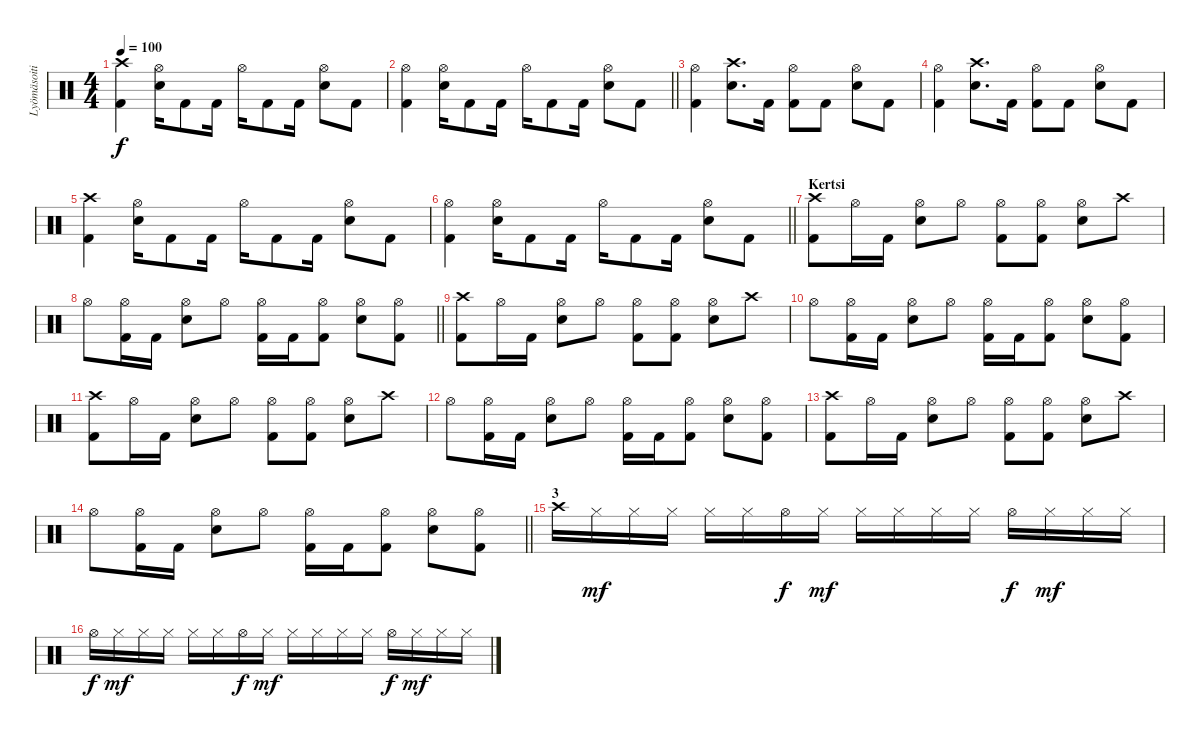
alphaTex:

\track ("Lyömäsoitin" "Lyömäsoiti") {instrument percussion}
\staff {score}
\articulation defaults
\ts (4 4)
\tempo 100
\clef neutral
\ks c
("Crash high (hit)" "Kick (hit) 2").4{dy f} ("Hi-Hat (open)" "Snare (hit) 2").16 "Kick (hit) 2".8 "Kick (hit) 2".16 "Hi-Hat (open)".16 "Kick (hit) 2".8 "Kick (hit) 2".16 ("Hi-Hat (open)" "Snare (hit) 2").8 "Kick (hit) 2".8 |
\barLineRight lightlight
("Hi-Hat (open)" "Kick (hit) 2").4 ("Hi-Hat (open)" "Snare (hit) 2").16 "Kick (hit) 2".8 "Kick (hit) 2".16 "Hi-Hat (open)".16 "Kick (hit) 2".8 "Kick (hit) 2".16 ("Hi-Hat (open)" "Snare (hit) 2").8 "Kick (hit) 2".8 |
("Hi-Hat (open)" "Kick (hit) 2").4 ("Crash high (hit)" "Snare (hit) 2").8{d} "Kick (hit) 2".16 ("Hi-Hat (open)" "Kick (hit) 2").8 "Kick (hit) 2".8 ("Hi-Hat (open)" "Snare (hit) 2").8 "Kick (hit) 2".8 |
("Hi-Hat (open)" "Kick (hit) 2").4 ("Crash high (hit)" "Snare (hit) 2").8{d} "Kick (hit) 2".16 ("Hi-Hat (open)" "Kick (hit) 2").8 "Kick (hit) 2".8 ("Hi-Hat (open)" "Snare (hit) 2").8 "Kick (hit) 2".8 |
("Crash high (hit)" "Kick (hit) 2").4 ("Hi-Hat (open)" "Snare (hit) 2").16 "Kick (hit) 2".8 "Kick (hit) 2".16 "Hi-Hat (open)".16 "Kick (hit) 2".8 "Kick (hit) 2".16 ("Hi-Hat (open)" "Snare (hit) 2").8 "Kick (hit) 2".8 |
\barLineRight lightlight
("Hi-Hat (open)" "Kick (hit) 2").4 ("Hi-Hat (open)" "Snare (hit) 2").16 "Kick (hit) 2".8 "Kick (hit) 2".16 "Hi-Hat (open)".16 "Kick (hit) 2".8 "Kick (hit) 2".16 ("Hi-Hat (open)" "Snare (hit) 2").8 "Kick (hit) 2".8 |
\section ("" "Kertsi")
("Crash high (hit)" "Kick (hit) 2").8 "Hi-Hat (open)".16 "Kick (hit) 2".16 ("Hi-Hat (open)" "Snare (hit) 2").8 "Hi-Hat (open)".8 ("Hi-Hat (open)" "Kick (hit) 2").8 ("Hi-Hat (open)" "Kick (hit) 2").8 ("Hi-Hat (open)" "Snare (hit) 2").8 "Crash high (hit)".8 |
\barLineRight lightlight "Hi-Hat (open)".8
("Hi-Hat (open)" "Kick (hit) 2").16 "Kick (hit) 2".16 ("Hi-Hat (open)" "Snare (hit) 2").8 "Hi-Hat (open)".8 ("Hi-Hat (open)" "Kick (hit) 2").16 "Kick (hit) 2".16 ("Hi-Hat (open)" "Kick (hit) 2").8 ("Hi-Hat (open)" "Snare (hit) 2").8 ("Hi-Hat (open)" "Kick (hit) 2").8 |
("Crash high (hit)" "Kick (hit) 2").8 "Hi-Hat (open)".16 "Kick (hit) 2".16 ("Hi-Hat (open)" "Snare (hit) 2").8 "Hi-Hat (open)".8 ("Hi-Hat (open)" "Kick (hit) 2").8 ("Hi-Hat (open)" "Kick (hit) 2").8 ("Hi-Hat (open)" "Snare (hit) 2").8 "Crash high (hit)".8 |
"Hi-Hat (open)".8 ("Hi-Hat (open)" "Kick (hit) 2").16 "Kick (hit) 2".16 ("Hi-Hat (open)" "Snare (hit) 2").8 "Hi-Hat (open)".8 ("Hi-Hat (open)" "Kick (hit) 2").16 "Kick (hit) 2".16 ("Hi-Hat (open)" "Kick (hit) 2").8 ("Hi-Hat (open)" "Snare (hit) 2").8 ("Hi-Hat (open)" "Kick (hit) 2").8 |
("Crash high (hit)" "Kick (hit) 2").8 "Hi-Hat (open)".16 "Kick (hit) 2".16 ("Hi-Hat (open)" "Snare (hit) 2").8 "Hi-Hat (open)".8 ("Hi-Hat (open)" "Kick (hit) 2").8 ("Hi-Hat (open)" "Kick (hit) 2").8 ("Hi-Hat (open)" "Snare (hit) 2").8 "Crash high (hit)".8 |
"Hi-Hat (open)".8 ("Hi-Hat (open)" "Kick (hit) 2").16 "Kick (hit) 2".16 ("Hi-Hat (open)" "Snare (hit) 2").8 "Hi-Hat (open)".8 ("Hi-Hat (open)" "Kick (hit) 2").16 "Kick (hit) 2".16 ("Hi-Hat (open)" "Kick (hit) 2").8 ("Hi-Hat (open)" "Snare (hit) 2").8 ("Hi-Hat (open)" "Kick (hit) 2").8 |
("Crash high (hit)" "Kick (hit) 2").8 "Hi-Hat (open)".16 "Kick (hit) 2".16 ("Hi-Hat (open)" "Snare (hit) 2").8 "Hi-Hat (open)".8 ("Hi-Hat (open)" "Kick (hit) 2").8 ("Hi-Hat (open)" "Kick (hit) 2").8 ("Hi-Hat (open)" "Snare (hit) 2").8 "Crash high (hit)".8 |
\barLineRight lightlight "Hi-Hat (open)".8
("Hi-Hat (open)" "Kick (hit) 2").16 "Kick (hit) 2".16 ("Hi-Hat (open)" "Snare (hit) 2").8 "Hi-Hat (open)".8 ("Hi-Hat (open)" "Kick (hit) 2").16 "Kick (hit) 2".16 ("Hi-Hat (open)" "Kick (hit) 2").8 ("Hi-Hat (open)" "Snare (hit) 2").8 ("Hi-Hat (open)" "Kick (hit) 2").8 |
\section ("" "3")
"Crash high (hit)".16 "Hi-Hat (closed)".16{dy mf} "Hi-Hat (closed)".16 "Hi-Hat (closed)".16 "Hi-Hat (closed)".16 "Hi-Hat (closed)".16 "Hi-Hat (open)".16{dy f} "Hi-Hat (closed)".16{dy mf} "Hi-Hat (closed)".16 "Hi-Hat (closed)".16 "Hi-Hat (closed)".16 "Hi-Hat (closed)".16 "Hi-Hat (open)".16{dy f} "Hi-Hat (closed)".16{dy mf} "Hi-Hat (closed)".16 "Hi-Hat (closed)".16 |
"Hi-Hat (open)".16{dy f} "Hi-Hat (closed)".16{dy mf} "Hi-Hat (closed)".16 "Hi-Hat (closed)".16 "Hi-Hat (closed)".16 "Hi-Hat (closed)".16 "Hi-Hat (open)".16{dy f} "Hi-Hat (closed)".16{dy mf} "Hi-Hat (closed)".16 "Hi-Hat (closed)".16 "Hi-Hat (closed)".16 "Hi-Hat (closed)".16 "Hi-Hat (open)".16{dy f} "Hi-Hat (closed)".16{dy mf} "Hi-Hat (closed)".16 "Hi-Hat (closed)".16
